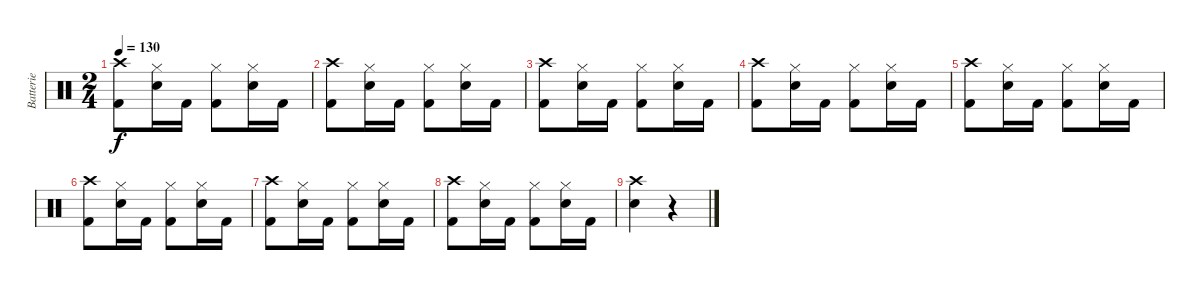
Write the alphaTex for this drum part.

\track ("Batterie" "Batterie") {instrument percussion}
\staff {score}
\articulation defaults
\ts (2 4)
\tempo 130
\clef neutral
\ks c
("Crash high (hit)" "Kick (hit) 2").8{dy f} ("Hi-Hat (closed)" "Snare (hit) 2").16 "Kick (hit) 2".16 ("Hi-Hat (closed)" "Kick (hit) 2").8 ("Hi-Hat (closed)" "Snare (hit) 2").16 "Kick (hit) 2".16 |
("Crash high (hit)" "Kick (hit) 2").8 ("Hi-Hat (closed)" "Snare (hit) 2").16 "Kick (hit) 2".16 ("Hi-Hat (closed)" "Kick (hit) 2").8 ("Hi-Hat (closed)" "Snare (hit) 2").16 "Kick (hit) 2".16 |
("Crash high (hit)" "Kick (hit) 2").8 ("Hi-Hat (closed)" "Snare (hit) 2").16 "Kick (hit) 2".16 ("Hi-Hat (closed)" "Kick (hit) 2").8 ("Hi-Hat (closed)" "Snare (hit) 2").16 "Kick (hit) 2".16 |
("Crash high (hit)" "Kick (hit) 2").8 ("Hi-Hat (closed)" "Snare (hit) 2").16 "Kick (hit) 2".16 ("Hi-Hat (closed)" "Kick (hit) 2").8 ("Hi-Hat (closed)" "Snare (hit) 2").16 "Kick (hit) 2".16 |
("Crash high (hit)" "Kick (hit) 2").8 ("Hi-Hat (closed)" "Snare (hit) 2").16 "Kick (hit) 2".16 ("Hi-Hat (closed)" "Kick (hit) 2").8 ("Hi-Hat (closed)" "Snare (hit) 2").16 "Kick (hit) 2".16 |
("Crash high (hit)" "Kick (hit) 2").8 ("Hi-Hat (closed)" "Snare (hit) 2").16 "Kick (hit) 2".16 ("Hi-Hat (closed)" "Kick (hit) 2").8 ("Hi-Hat (closed)" "Snare (hit) 2").16 "Kick (hit) 2".16 |
("Crash high (hit)" "Kick (hit) 2").8 ("Hi-Hat (closed)" "Snare (hit) 2").16 "Kick (hit) 2".16 ("Hi-Hat (closed)" "Kick (hit) 2").8 ("Hi-Hat (closed)" "Snare (hit) 2").16 "Kick (hit) 2".16 |
("Crash high (hit)" "Kick (hit) 2").8 ("Hi-Hat (closed)" "Snare (hit) 2").16 "Kick (hit) 2".16 ("Hi-Hat (closed)" "Kick (hit) 2").8 ("Hi-Hat (closed)" "Snare (hit) 2").16 "Kick (hit) 2".16 |
("Crash high (hit)" "Snare (hit) 2").4 r.4
